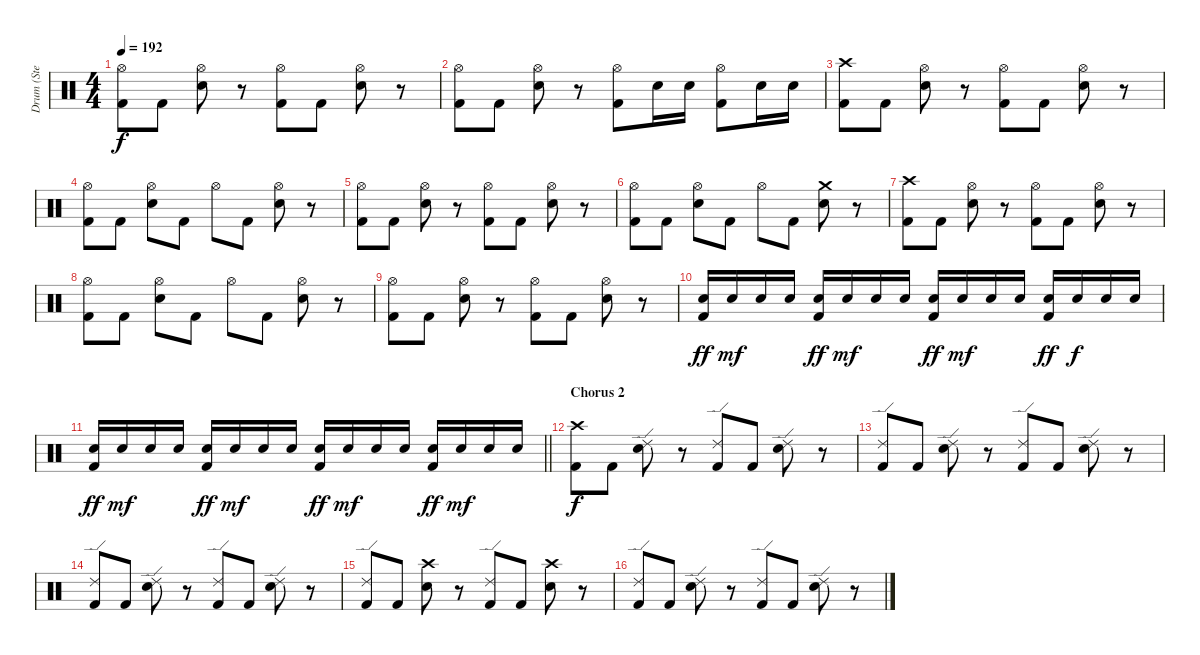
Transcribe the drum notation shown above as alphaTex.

\track (" Drum (Steve O)" " Drum (Ste") {instrument percussion}
\staff {score}
\articulation defaults
\ts (4 4)
\tempo 192
\clef neutral
\ks c
("Hi-Hat (open)" "Kick (hit) 2").8{dy f} "Kick (hit) 2".8 ("Hi-Hat (open)" "Snare (hit) 2").8 r.8 ("Hi-Hat (open)" "Kick (hit) 2").8 "Kick (hit) 2".8 ("Hi-Hat (open)" "Snare (hit) 2").8 r.8 |
("Hi-Hat (open)" "Kick (hit) 2").8 "Kick (hit) 2".8 ("Hi-Hat (open)" "Snare (hit) 2").8 r.8 ("Hi-Hat (open)" "Kick (hit) 2").8 "Snare (hit) 2".16 "Snare (hit) 2".16 ("Hi-Hat (open)" "Kick (hit) 2").8 "Snare (hit) 2".16 "Snare (hit) 2".16 |
("Crash high (hit)" "Kick (hit) 2").8 "Kick (hit) 2".8 ("Hi-Hat (open)" "Snare (hit) 2").8 r.8 ("Hi-Hat (open)" "Kick (hit) 2").8 "Kick (hit) 2".8 ("Hi-Hat (open)" "Snare (hit) 2").8 r.8 |
("Hi-Hat (open)" "Kick (hit) 2").8 "Kick (hit) 2".8 ("Hi-Hat (open)" "Snare (hit) 2").8 "Kick (hit) 2".8 "Hi-Hat (open)".8 "Kick (hit) 2".8 ("Hi-Hat (open)" "Snare (hit) 2").8 r.8 |
("Hi-Hat (open)" "Kick (hit) 2").8 "Kick (hit) 2".8 ("Hi-Hat (open)" "Snare (hit) 2").8 r.8 ("Hi-Hat (open)" "Kick (hit) 2").8 "Kick (hit) 2".8 ("Hi-Hat (open)" "Snare (hit) 2").8 r.8 |
("Hi-Hat (open)" "Kick (hit) 2").8 "Kick (hit) 2".8 ("Hi-Hat (open)" "Snare (hit) 2").8 "Kick (hit) 2".8 "Hi-Hat (open)".8 "Kick (hit) 2".8 ("Crash medium (hit)" "Snare (hit) 2").8 r.8 |
("Crash high (hit)" "Kick (hit) 2").8 "Kick (hit) 2".8 ("Hi-Hat (open)" "Snare (hit) 2").8 r.8 ("Hi-Hat (open)" "Kick (hit) 2").8 "Kick (hit) 2".8 ("Hi-Hat (open)" "Snare (hit) 2").8 r.8 |
("Hi-Hat (open)" "Kick (hit) 2").8 "Kick (hit) 2".8 ("Hi-Hat (open)" "Snare (hit) 2").8 "Kick (hit) 2".8 "Hi-Hat (open)".8 "Kick (hit) 2".8 ("Hi-Hat (open)" "Snare (hit) 2").8 r.8 |
("Hi-Hat (open)" "Kick (hit) 2").8 "Kick (hit) 2".8 ("Hi-Hat (open)" "Snare (hit) 2").8 r.8 ("Hi-Hat (open)" "Kick (hit) 2").8 "Kick (hit) 2".8 ("Hi-Hat (open)" "Snare (hit) 2").8 r.8 |
("Snare (hit) 2" "Kick (hit) 2").16{dy ff} "Snare (hit) 2".16{dy mf} "Snare (hit) 2".16 "Snare (hit) 2".16 ("Snare (hit) 2" "Kick (hit) 2").16{dy ff} "Snare (hit) 2".16{dy mf} "Snare (hit) 2".16 "Snare (hit) 2".16 ("Snare (hit) 2" "Kick (hit) 2").16{dy ff} "Snare (hit) 2".16{dy mf} "Snare (hit) 2".16 "Snare (hit) 2".16 ("Snare (hit) 2" "Kick (hit) 2").16{dy ff} "Snare (hit) 2".16{dy f} "Snare (hit) 2".16 "Snare (hit) 2".16 |
\barLineRight lightlight
("Snare (hit) 2" "Kick (hit) 2").16{dy ff} "Snare (hit) 2".16{dy mf} "Snare (hit) 2".16 "Snare (hit) 2".16 ("Snare (hit) 2" "Kick (hit) 2").16{dy ff} "Snare (hit) 2".16{dy mf} "Snare (hit) 2".16 "Snare (hit) 2".16 ("Snare (hit) 2" "Kick (hit) 2").16{dy ff} "Snare (hit) 2".16{dy mf} "Snare (hit) 2".16 "Snare (hit) 2".16 ("Snare (hit) 2" "Kick (hit) 2").16{dy ff} "Snare (hit) 2".16{dy mf} "Snare (hit) 2".16 "Snare (hit) 2".16 |
\section ("" "Chorus 2")
("Crash high (hit)" "Kick (hit) 2").8{dy f} "Kick (hit) 2".8 ("Ride (edge) 2" "Snare (hit) 2").8 r.8 ("Ride (edge) 2" "Kick (hit) 2").8 "Kick (hit) 2".8 ("Ride (edge) 2" "Snare (hit) 2").8 r.8 |
("Ride (edge) 2" "Kick (hit) 2").8 "Kick (hit) 2".8 ("Ride (edge) 2" "Snare (hit) 2").8 r.8 ("Ride (edge) 2" "Kick (hit) 2").8 "Kick (hit) 2".8 ("Ride (edge) 2" "Snare (hit) 2").8 r.8 |
("Ride (edge) 2" "Kick (hit) 2").8 "Kick (hit) 2".8 ("Ride (edge) 2" "Snare (hit) 2").8 r.8 ("Ride (edge) 2" "Kick (hit) 2").8 "Kick (hit) 2".8 ("Ride (edge) 2" "Snare (hit) 2").8 r.8 |
("Ride (edge) 2" "Kick (hit) 2").8 "Kick (hit) 2".8 ("Crash high (hit)" "Snare (hit) 2").8 r.8 ("Ride (edge) 2" "Kick (hit) 2").8 "Kick (hit) 2".8 ("Crash high (hit)" "Snare (hit) 2").8 r.8 |
("Ride (edge) 2" "Kick (hit) 2").8 "Kick (hit) 2".8 ("Ride (edge) 2" "Snare (hit) 2").8 r.8 ("Ride (edge) 2" "Kick (hit) 2").8 "Kick (hit) 2".8 ("Ride (edge) 2" "Snare (hit) 2").8 r.8
